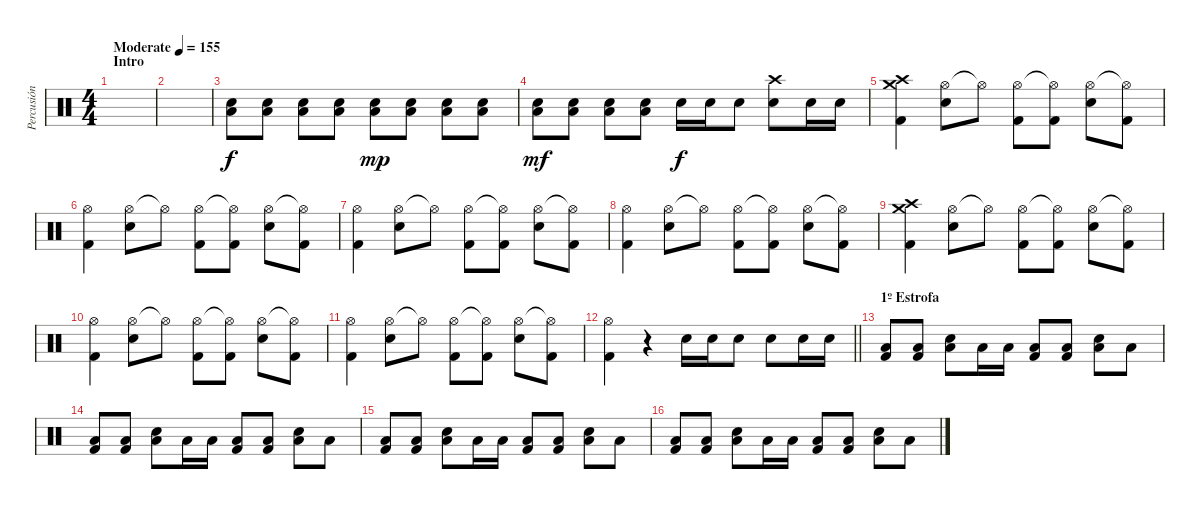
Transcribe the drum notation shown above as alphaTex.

\track ("Percusión" "Percusión") {instrument percussion}
\staff {score}
\articulation defaults
\ts (4 4)
\section ("" "Intro")
\tempo (155 "Moderate")
\clef neutral
\ks c
|
|
("Electric Snare (hit)" "Low Floor Tom (hit)").8 ("Electric Snare (hit)" "Low Floor Tom (hit)").8 ("Electric Snare (hit)" "Low Floor Tom (hit)").8 ("Electric Snare (hit)" "Low Floor Tom (hit)").8 ("Electric Snare (hit)" "Low Floor Tom (hit)").8{dy mp} ("Electric Snare (hit)" "Low Floor Tom (hit)").8 ("Electric Snare (hit)" "Low Floor Tom (hit)").8 ("Electric Snare (hit)" "Low Floor Tom (hit)").8 |
("Electric Snare (hit)" "Low Floor Tom (hit)").8{dy mf} ("Electric Snare (hit)" "Low Floor Tom (hit)").8 ("Electric Snare (hit)" "Low Floor Tom (hit)").8 ("Electric Snare (hit)" "Low Floor Tom (hit)").8 "Electric Snare (hit)".16{dy f} "Electric Snare (hit)".16 "Electric Snare (hit)".8 ("Electric Snare (hit)" "Crash high (hit)").8 "Electric Snare (hit)".16 "Electric Snare (hit)".16 |
("Crash high (hit)" "Crash medium (hit)" "Kick (hit) 2").4 ("Hi-Hat (open)" "Electric Snare (hit)").8 "Hi-Hat (open)"{t}.8 ("Hi-Hat (open)" "Kick (hit) 2").8 ("Hi-Hat (open)"{t} "Kick (hit) 2").8 ("Hi-Hat (open)" "Electric Snare (hit)").8 ("Hi-Hat (open)"{t} "Kick (hit) 2").8 |
("Hi-Hat (open)" "Kick (hit) 2").4 ("Hi-Hat (open)" "Electric Snare (hit)").8 "Hi-Hat (open)"{t}.8 ("Hi-Hat (open)" "Kick (hit) 2").8 ("Hi-Hat (open)"{t} "Kick (hit) 2").8 ("Hi-Hat (open)" "Electric Snare (hit)").8 ("Hi-Hat (open)"{t} "Kick (hit) 2").8 |
("Hi-Hat (open)" "Kick (hit) 2").4 ("Hi-Hat (open)" "Electric Snare (hit)").8 "Hi-Hat (open)"{t}.8 ("Hi-Hat (open)" "Kick (hit) 2").8 ("Hi-Hat (open)"{t} "Kick (hit) 2").8 ("Hi-Hat (open)" "Electric Snare (hit)").8 ("Hi-Hat (open)"{t} "Kick (hit) 2").8 |
("Hi-Hat (open)" "Kick (hit) 2").4 ("Hi-Hat (open)" "Electric Snare (hit)").8 "Hi-Hat (open)"{t}.8 ("Hi-Hat (open)" "Kick (hit) 2").8 ("Hi-Hat (open)"{t} "Kick (hit) 2").8 ("Hi-Hat (open)" "Electric Snare (hit)").8 ("Hi-Hat (open)"{t} "Kick (hit) 2").8 |
("Crash medium (hit)" "Crash high (hit)" "Kick (hit) 2").4 ("Hi-Hat (open)" "Electric Snare (hit)").8 "Hi-Hat (open)"{t}.8 ("Hi-Hat (open)" "Kick (hit) 2").8 ("Hi-Hat (open)"{t} "Kick (hit) 2").8 ("Hi-Hat (open)" "Electric Snare (hit)").8 ("Hi-Hat (open)"{t} "Kick (hit) 2").8 |
("Hi-Hat (open)" "Kick (hit) 2").4 ("Hi-Hat (open)" "Electric Snare (hit)").8 "Hi-Hat (open)"{t}.8 ("Hi-Hat (open)" "Kick (hit) 2").8 ("Hi-Hat (open)"{t} "Kick (hit) 2").8 ("Hi-Hat (open)" "Electric Snare (hit)").8 ("Hi-Hat (open)"{t} "Kick (hit) 2").8 |
("Hi-Hat (open)" "Kick (hit) 2").4 ("Hi-Hat (open)" "Electric Snare (hit)").8 "Hi-Hat (open)"{t}.8 ("Hi-Hat (open)" "Kick (hit) 2").8 ("Hi-Hat (open)"{t} "Kick (hit) 2").8 ("Hi-Hat (open)" "Electric Snare (hit)").8 ("Hi-Hat (open)"{t} "Kick (hit) 2").8 |
\barLineRight lightlight
("Hi-Hat (open)" "Kick (hit) 2").4 r.4 "Electric Snare (hit)".16 "Electric Snare (hit)".16 "Electric Snare (hit)".8 "Electric Snare (hit)".8 "Electric Snare (hit)".16 "Electric Snare (hit)".16 |
\section ("" "1º Estrofa")
("Low Floor Tom (hit)" "Kick (hit) 2").8 ("Low Floor Tom (hit)" "Kick (hit) 2").8 ("Low Floor Tom (hit)" "Electric Snare (hit)").8 "Low Floor Tom (hit)".16 "Low Floor Tom (hit)".16 ("Low Floor Tom (hit)" "Kick (hit) 2").8 ("Low Floor Tom (hit)" "Kick (hit) 2").8 ("Low Floor Tom (hit)" "Electric Snare (hit)").8 "Low Floor Tom (hit)".8 |
("Low Floor Tom (hit)" "Kick (hit) 2").8 ("Low Floor Tom (hit)" "Kick (hit) 2").8 ("Low Floor Tom (hit)" "Electric Snare (hit)").8 "Low Floor Tom (hit)".16 "Low Floor Tom (hit)".16 ("Low Floor Tom (hit)" "Kick (hit) 2").8 ("Low Floor Tom (hit)" "Kick (hit) 2").8 ("Low Floor Tom (hit)" "Electric Snare (hit)").8 "Low Floor Tom (hit)".8 |
("Low Floor Tom (hit)" "Kick (hit) 2").8 ("Low Floor Tom (hit)" "Kick (hit) 2").8 ("Low Floor Tom (hit)" "Electric Snare (hit)").8 "Low Floor Tom (hit)".16 "Low Floor Tom (hit)".16 ("Low Floor Tom (hit)" "Kick (hit) 2").8 ("Low Floor Tom (hit)" "Kick (hit) 2").8 ("Low Floor Tom (hit)" "Electric Snare (hit)").8 "Low Floor Tom (hit)".8 |
("Low Floor Tom (hit)" "Kick (hit) 2").8 ("Low Floor Tom (hit)" "Kick (hit) 2").8 ("Low Floor Tom (hit)" "Electric Snare (hit)").8 "Low Floor Tom (hit)".16 "Low Floor Tom (hit)".16 ("Low Floor Tom (hit)" "Kick (hit) 2").8 ("Low Floor Tom (hit)" "Kick (hit) 2").8 ("Low Floor Tom (hit)" "Electric Snare (hit)").8 "Low Floor Tom (hit)".8
